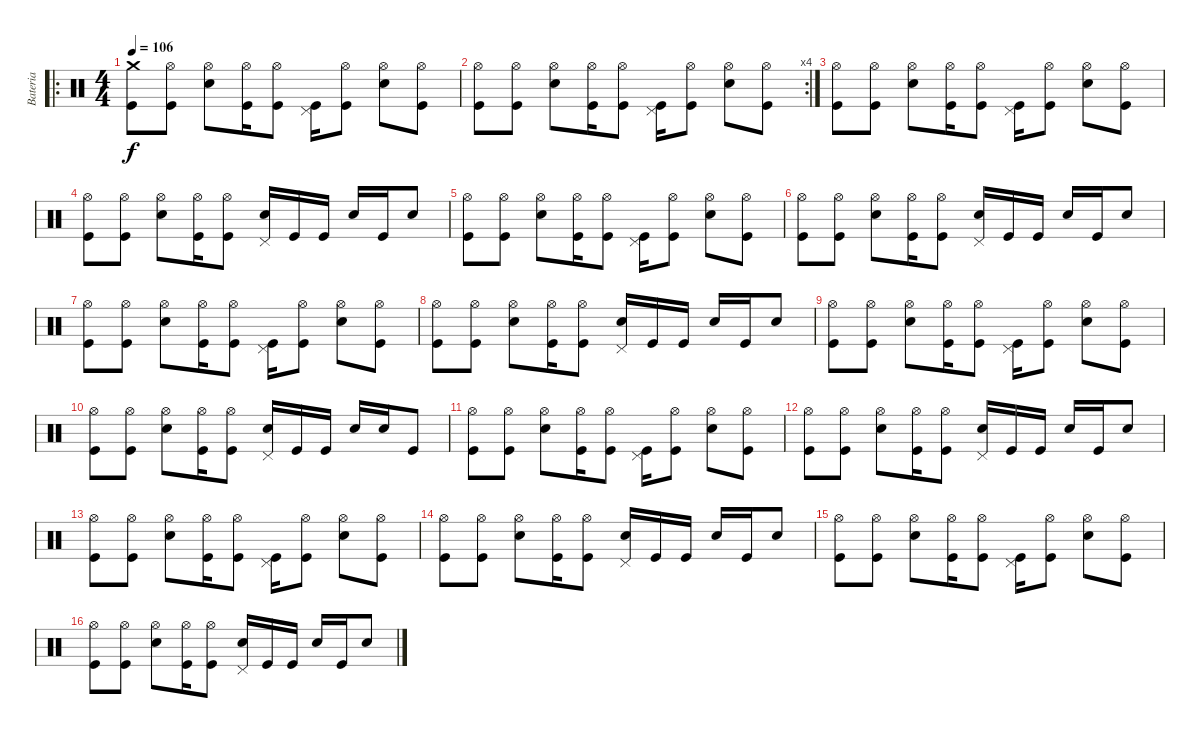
\track ("Bateria" "Bateria") {instrument percussion}
\staff {score}
\articulation defaults
\ro
\ts (4 4)
\tempo 106
\clef neutral
\ks c
("Crash medium (hit)" "Kick (hit)").8{dy f} ("Hi-Hat (open)" "Kick (hit)").8 ("Hi-Hat (open)" "Snare (hit) 2").8 ("Hi-Hat (open)" "Kick (hit)").16 ("Hi-Hat (open)" "Kick (hit)").8 ("Pedal Hi-Hat (hit)" "Kick (hit)").16 ("Hi-Hat (open)" "Kick (hit)").8 ("Hi-Hat (open)" "Snare (hit) 2").8 ("Hi-Hat (open)" "Kick (hit)").8 |
\rc 4
("Hi-Hat (open)" "Kick (hit)").8 ("Hi-Hat (open)" "Kick (hit)").8 ("Hi-Hat (open)" "Snare (hit) 2").8 ("Hi-Hat (open)" "Kick (hit)").16 ("Hi-Hat (open)" "Kick (hit)").8 ("Pedal Hi-Hat (hit)" "Kick (hit)").16 ("Hi-Hat (open)" "Kick (hit)").8 ("Hi-Hat (open)" "Snare (hit) 2").8 ("Hi-Hat (open)" "Kick (hit)").8 |
("Hi-Hat (open)" "Kick (hit)").8 ("Hi-Hat (open)" "Kick (hit)").8 ("Hi-Hat (open)" "Snare (hit) 2").8 ("Hi-Hat (open)" "Kick (hit)").16 ("Hi-Hat (open)" "Kick (hit)").8 ("Pedal Hi-Hat (hit)" "Kick (hit)").16 ("Hi-Hat (open)" "Kick (hit)").8 ("Hi-Hat (open)" "Snare (hit) 2").8 ("Hi-Hat (open)" "Kick (hit)").8 |
("Hi-Hat (open)" "Kick (hit)").8 ("Hi-Hat (open)" "Kick (hit)").8 ("Hi-Hat (open)" "Snare (hit) 2").8 ("Hi-Hat (open)" "Kick (hit)").16 ("Hi-Hat (open)" "Kick (hit)").8 ("Pedal Hi-Hat (hit)" "Snare (hit) 2").16 "Kick (hit)".16 "Kick (hit)".16 "Snare (hit) 2".16 "Kick (hit)".16 "Snare (hit) 2".8 |
("Hi-Hat (open)" "Kick (hit)").8 ("Hi-Hat (open)" "Kick (hit)").8 ("Hi-Hat (open)" "Snare (hit) 2").8 ("Hi-Hat (open)" "Kick (hit)").16 ("Hi-Hat (open)" "Kick (hit)").8 ("Pedal Hi-Hat (hit)" "Kick (hit)").16 ("Hi-Hat (open)" "Kick (hit)").8 ("Hi-Hat (open)" "Snare (hit) 2").8 ("Hi-Hat (open)" "Kick (hit)").8 |
("Hi-Hat (open)" "Kick (hit)").8 ("Hi-Hat (open)" "Kick (hit)").8 ("Hi-Hat (open)" "Snare (hit) 2").8 ("Hi-Hat (open)" "Kick (hit)").16 ("Hi-Hat (open)" "Kick (hit)").8 ("Pedal Hi-Hat (hit)" "Snare (hit) 2").16 "Kick (hit)".16 "Kick (hit)".16 "Snare (hit) 2".16 "Kick (hit)".16 "Snare (hit) 2".8 |
("Hi-Hat (open)" "Kick (hit)").8 ("Hi-Hat (open)" "Kick (hit)").8 ("Hi-Hat (open)" "Snare (hit) 2").8 ("Hi-Hat (open)" "Kick (hit)").16 ("Hi-Hat (open)" "Kick (hit)").8 ("Pedal Hi-Hat (hit)" "Kick (hit)").16 ("Hi-Hat (open)" "Kick (hit)").8 ("Hi-Hat (open)" "Snare (hit) 2").8 ("Hi-Hat (open)" "Kick (hit)").8 |
("Hi-Hat (open)" "Kick (hit)").8 ("Hi-Hat (open)" "Kick (hit)").8 ("Hi-Hat (open)" "Snare (hit) 2").8 ("Hi-Hat (open)" "Kick (hit)").16 ("Hi-Hat (open)" "Kick (hit)").8 ("Pedal Hi-Hat (hit)" "Snare (hit) 2").16 "Kick (hit)".16 "Kick (hit)".16 "Snare (hit) 2".16 "Kick (hit)".16 "Snare (hit) 2".8 |
("Hi-Hat (open)" "Kick (hit)").8 ("Hi-Hat (open)" "Kick (hit)").8 ("Hi-Hat (open)" "Snare (hit) 2").8 ("Hi-Hat (open)" "Kick (hit)").16 ("Hi-Hat (open)" "Kick (hit)").8 ("Pedal Hi-Hat (hit)" "Kick (hit)").16 ("Hi-Hat (open)" "Kick (hit)").8 ("Hi-Hat (open)" "Snare (hit) 2").8 ("Hi-Hat (open)" "Kick (hit)").8 |
("Hi-Hat (open)" "Kick (hit)").8 ("Hi-Hat (open)" "Kick (hit)").8 ("Hi-Hat (open)" "Snare (hit) 2").8 ("Hi-Hat (open)" "Kick (hit)").16 ("Hi-Hat (open)" "Kick (hit)").8 ("Pedal Hi-Hat (hit)" "Snare (hit) 2").16 "Kick (hit)".16 "Kick (hit)".16 "Snare (hit) 2".16 "Snare (hit) 2".16 "Kick (hit)".8 |
("Hi-Hat (open)" "Kick (hit)").8 ("Hi-Hat (open)" "Kick (hit)").8 ("Hi-Hat (open)" "Snare (hit) 2").8 ("Hi-Hat (open)" "Kick (hit)").16 ("Hi-Hat (open)" "Kick (hit)").8 ("Pedal Hi-Hat (hit)" "Kick (hit)").16 ("Hi-Hat (open)" "Kick (hit)").8 ("Hi-Hat (open)" "Snare (hit) 2").8 ("Hi-Hat (open)" "Kick (hit)").8 |
("Hi-Hat (open)" "Kick (hit)").8 ("Hi-Hat (open)" "Kick (hit)").8 ("Hi-Hat (open)" "Snare (hit) 2").8 ("Hi-Hat (open)" "Kick (hit)").16 ("Hi-Hat (open)" "Kick (hit)").8 ("Pedal Hi-Hat (hit)" "Snare (hit) 2").16 "Kick (hit)".16 "Kick (hit)".16 "Snare (hit) 2".16 "Kick (hit)".16 "Snare (hit) 2".8 |
("Hi-Hat (open)" "Kick (hit)").8 ("Hi-Hat (open)" "Kick (hit)").8 ("Hi-Hat (open)" "Snare (hit) 2").8 ("Hi-Hat (open)" "Kick (hit)").16 ("Hi-Hat (open)" "Kick (hit)").8 ("Pedal Hi-Hat (hit)" "Kick (hit)").16 ("Hi-Hat (open)" "Kick (hit)").8 ("Hi-Hat (open)" "Snare (hit) 2").8 ("Hi-Hat (open)" "Kick (hit)").8 |
("Hi-Hat (open)" "Kick (hit)").8 ("Hi-Hat (open)" "Kick (hit)").8 ("Hi-Hat (open)" "Snare (hit) 2").8 ("Hi-Hat (open)" "Kick (hit)").16 ("Hi-Hat (open)" "Kick (hit)").8 ("Pedal Hi-Hat (hit)" "Snare (hit) 2").16 "Kick (hit)".16 "Kick (hit)".16 "Snare (hit) 2".16 "Kick (hit)".16 "Snare (hit) 2".8 |
("Hi-Hat (open)" "Kick (hit)").8 ("Hi-Hat (open)" "Kick (hit)").8 ("Hi-Hat (open)" "Snare (hit) 2").8 ("Hi-Hat (open)" "Kick (hit)").16 ("Hi-Hat (open)" "Kick (hit)").8 ("Pedal Hi-Hat (hit)" "Kick (hit)").16 ("Hi-Hat (open)" "Kick (hit)").8 ("Hi-Hat (open)" "Snare (hit) 2").8 ("Hi-Hat (open)" "Kick (hit)").8 |
("Hi-Hat (open)" "Kick (hit)").8 ("Hi-Hat (open)" "Kick (hit)").8 ("Hi-Hat (open)" "Snare (hit) 2").8 ("Hi-Hat (open)" "Kick (hit)").16 ("Hi-Hat (open)" "Kick (hit)").8 ("Pedal Hi-Hat (hit)" "Snare (hit) 2").16 "Kick (hit)".16 "Kick (hit)".16 "Snare (hit) 2".16 "Kick (hit)".16 "Snare (hit) 2".8
